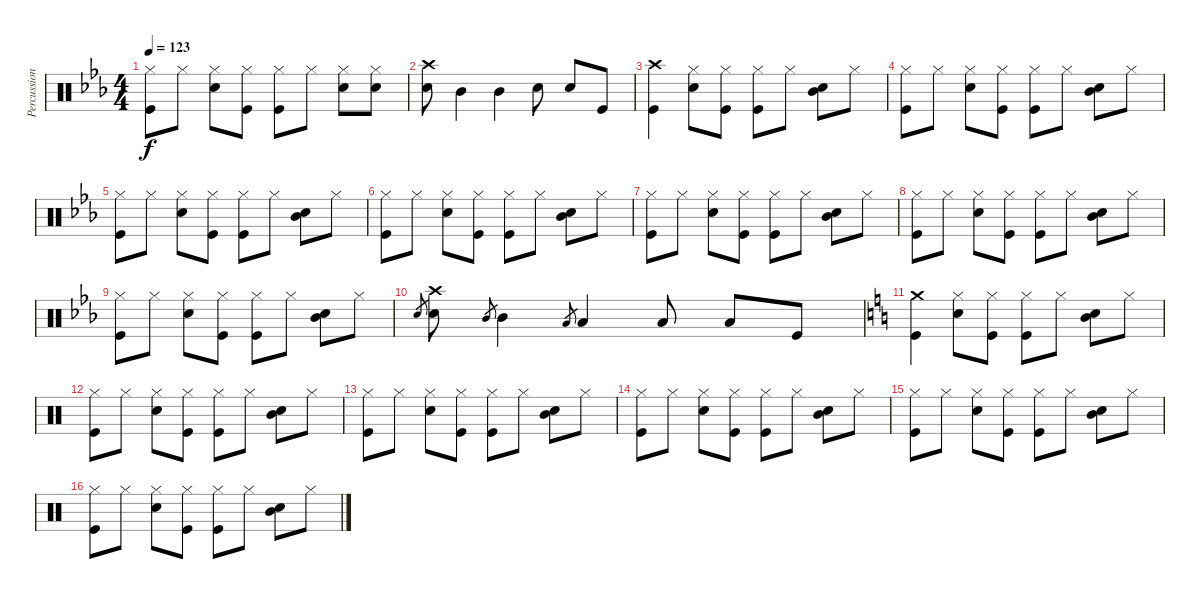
\track ("Percussion" "Percussion") {instrument percussion}
\staff {score}
\articulation defaults
\ts (4 4)
\tempo 123
\clef neutral
\ks eb
("Hi-Hat (closed)" "Kick (hit)").8{dy f} "Hi-Hat (closed)".8 ("Hi-Hat (closed)" "Snare (hit) 2").8 ("Hi-Hat (closed)" "Kick (hit)").8 ("Hi-Hat (closed)" "Kick (hit)").8 "Hi-Hat (closed)".8 ("Hi-Hat (closed)" "Snare (hit) 2").8 ("Hi-Hat (closed)" "Snare (hit) 2").8 |
("Crash high (hit)" "Snare (hit) 2").8 "Mid Tom (hit)".4 "Mid Tom (hit)".4 "Snare (hit) 2".8 "Snare (hit) 2".8 "Kick (hit)".8 |
("Crash high (hit)" "Kick (hit)").4 ("Hi-Hat (closed)" "Snare (hit) 2").8 ("Hi-Hat (closed)" "Kick (hit)").8 ("Hi-Hat (closed)" "Kick (hit)").8 "Hi-Hat (closed)".8 ("Mid Tom (hit)" "Snare (hit) 2").8 "Hi-Hat (closed)".8 |
("Hi-Hat (closed)" "Kick (hit)").8 "Hi-Hat (closed)".8 ("Hi-Hat (closed)" "Snare (hit) 2").8 ("Hi-Hat (closed)" "Kick (hit)").8 ("Hi-Hat (closed)" "Kick (hit)").8 "Hi-Hat (closed)".8 ("Mid Tom (hit)" "Snare (hit) 2").8 "Hi-Hat (closed)".8 |
("Hi-Hat (closed)" "Kick (hit)").8 "Hi-Hat (closed)".8 ("Hi-Hat (closed)" "Snare (hit) 2").8 ("Hi-Hat (closed)" "Kick (hit)").8 ("Hi-Hat (closed)" "Kick (hit)").8 "Hi-Hat (closed)".8 ("Mid Tom (hit)" "Snare (hit) 2").8 "Hi-Hat (closed)".8 |
("Hi-Hat (closed)" "Kick (hit)").8 "Hi-Hat (closed)".8 ("Hi-Hat (closed)" "Snare (hit) 2").8 ("Hi-Hat (closed)" "Kick (hit)").8 ("Hi-Hat (closed)" "Kick (hit)").8 "Hi-Hat (closed)".8 ("Mid Tom (hit)" "Snare (hit) 2").8 "Hi-Hat (closed)".8 |
("Hi-Hat (closed)" "Kick (hit)").8 "Hi-Hat (closed)".8 ("Hi-Hat (closed)" "Snare (hit) 2").8 ("Hi-Hat (closed)" "Kick (hit)").8 ("Hi-Hat (closed)" "Kick (hit)").8 "Hi-Hat (closed)".8 ("Mid Tom (hit)" "Snare (hit) 2").8 "Hi-Hat (closed)".8 |
("Hi-Hat (closed)" "Kick (hit)").8 "Hi-Hat (closed)".8 ("Hi-Hat (closed)" "Snare (hit) 2").8 ("Hi-Hat (closed)" "Kick (hit)").8 ("Hi-Hat (closed)" "Kick (hit)").8 "Hi-Hat (closed)".8 ("Mid Tom (hit)" "Snare (hit) 2").8 "Hi-Hat (closed)".8 |
("Hi-Hat (closed)" "Kick (hit)").8 "Hi-Hat (closed)".8 ("Hi-Hat (closed)" "Snare (hit) 2").8 ("Hi-Hat (closed)" "Kick (hit)").8 ("Hi-Hat (closed)" "Kick (hit)").8 "Hi-Hat (closed)".8 ("Mid Tom (hit)" "Snare (hit) 2").8 "Hi-Hat (closed)".8 |
"Snare (hit) 2".8{gr} ("Crash high (hit)" "Snare (hit) 2").8 "Mid Tom (hit)".8{gr} "Mid Tom (hit)".4 "Low Tom (hit)".8{gr} "Low Tom (hit)".4 "Low Tom (hit)".8 "Low Tom (hit)".8 "Kick (hit)".8 |
\ks c
("Crash medium (hit)" "Kick (hit)").4 ("Hi-Hat (closed)" "Snare (hit) 2").8 ("Hi-Hat (closed)" "Kick (hit)").8 ("Hi-Hat (closed)" "Kick (hit)").8 "Hi-Hat (closed)".8 ("Mid Tom (hit)" "Snare (hit) 2").8 "Hi-Hat (closed)".8 |
("Hi-Hat (closed)" "Kick (hit)").8 "Hi-Hat (closed)".8 ("Hi-Hat (closed)" "Snare (hit) 2").8 ("Hi-Hat (closed)" "Kick (hit)").8 ("Hi-Hat (closed)" "Kick (hit)").8 "Hi-Hat (closed)".8 ("Mid Tom (hit)" "Snare (hit) 2").8 "Hi-Hat (closed)".8 |
("Hi-Hat (closed)" "Kick (hit)").8 "Hi-Hat (closed)".8 ("Hi-Hat (closed)" "Snare (hit) 2").8 ("Hi-Hat (closed)" "Kick (hit)").8 ("Hi-Hat (closed)" "Kick (hit)").8 "Hi-Hat (closed)".8 ("Mid Tom (hit)" "Snare (hit) 2").8 "Hi-Hat (closed)".8 |
("Hi-Hat (closed)" "Kick (hit)").8 "Hi-Hat (closed)".8 ("Hi-Hat (closed)" "Snare (hit) 2").8 ("Hi-Hat (closed)" "Kick (hit)").8 ("Hi-Hat (closed)" "Kick (hit)").8 "Hi-Hat (closed)".8 ("Mid Tom (hit)" "Snare (hit) 2").8 "Hi-Hat (closed)".8 |
("Hi-Hat (closed)" "Kick (hit)").8 "Hi-Hat (closed)".8 ("Hi-Hat (closed)" "Snare (hit) 2").8 ("Hi-Hat (closed)" "Kick (hit)").8 ("Hi-Hat (closed)" "Kick (hit)").8 "Hi-Hat (closed)".8 ("Mid Tom (hit)" "Snare (hit) 2").8 "Hi-Hat (closed)".8 |
("Hi-Hat (closed)" "Kick (hit)").8 "Hi-Hat (closed)".8 ("Hi-Hat (closed)" "Snare (hit) 2").8 ("Hi-Hat (closed)" "Kick (hit)").8 ("Hi-Hat (closed)" "Kick (hit)").8 "Hi-Hat (closed)".8 ("Mid Tom (hit)" "Snare (hit) 2").8 "Hi-Hat (closed)".8
